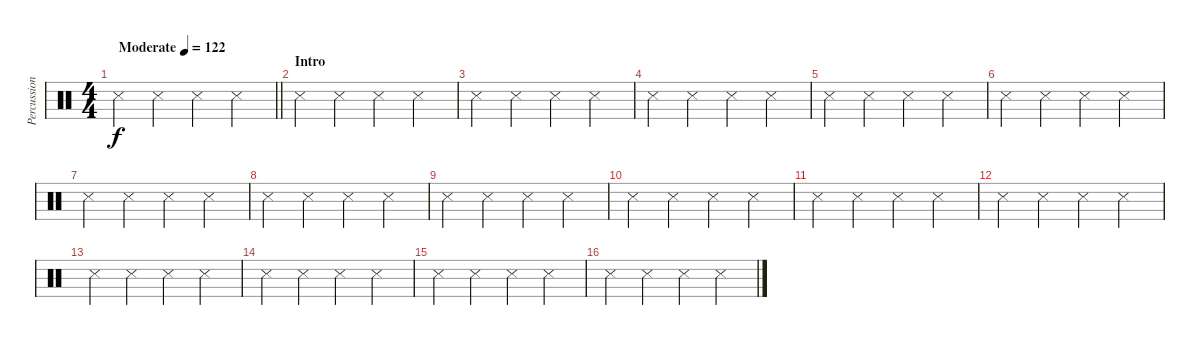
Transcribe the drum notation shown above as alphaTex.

\track ("Percussion" "Percussion") {instrument percussion}
\staff {score}
\articulation defaults
\ts (4 4)
\tempo (122 "Moderate")
\clef neutral
\barLineRight lightlight
\ks c "Snare (side stick) 3".4{dy f} "Metronome (hit)".4 "Metronome (hit)".4 "Metronome (hit)".4
|
\section ("" "Intro")
"Snare (side stick) 3".4 "Metronome (hit)".4 "Metronome (hit)".4 "Metronome (hit)".4 |
"Snare (side stick) 3".4 "Metronome (hit)".4 "Metronome (hit)".4 "Metronome (hit)".4 |
"Snare (side stick) 3".4 "Metronome (hit)".4 "Metronome (hit)".4 "Metronome (hit)".4 |
"Snare (side stick) 3".4 "Metronome (hit)".4 "Metronome (hit)".4 "Metronome (hit)".4 |
"Snare (side stick) 3".4 "Metronome (hit)".4 "Metronome (hit)".4 "Metronome (hit)".4 |
"Snare (side stick) 3".4 "Metronome (hit)".4 "Metronome (hit)".4 "Metronome (hit)".4 |
"Snare (side stick) 3".4 "Metronome (hit)".4 "Metronome (hit)".4 "Metronome (hit)".4 |
"Snare (side stick) 3".4 "Metronome (hit)".4 "Metronome (hit)".4 "Metronome (hit)".4 |
"Snare (side stick) 3".4 "Metronome (hit)".4 "Metronome (hit)".4 "Metronome (hit)".4 |
"Snare (side stick) 3".4 "Metronome (hit)".4 "Metronome (hit)".4 "Metronome (hit)".4 |
"Snare (side stick) 3".4 "Metronome (hit)".4 "Metronome (hit)".4 "Metronome (hit)".4 |
"Snare (side stick) 3".4 "Metronome (hit)".4 "Metronome (hit)".4 "Metronome (hit)".4 |
"Snare (side stick) 3".4 "Metronome (hit)".4 "Metronome (hit)".4 "Metronome (hit)".4 |
"Snare (side stick) 3".4 "Metronome (hit)".4 "Metronome (hit)".4 "Metronome (hit)".4 |
"Snare (side stick) 3".4 "Metronome (hit)".4 "Metronome (hit)".4 "Metronome (hit)".4
